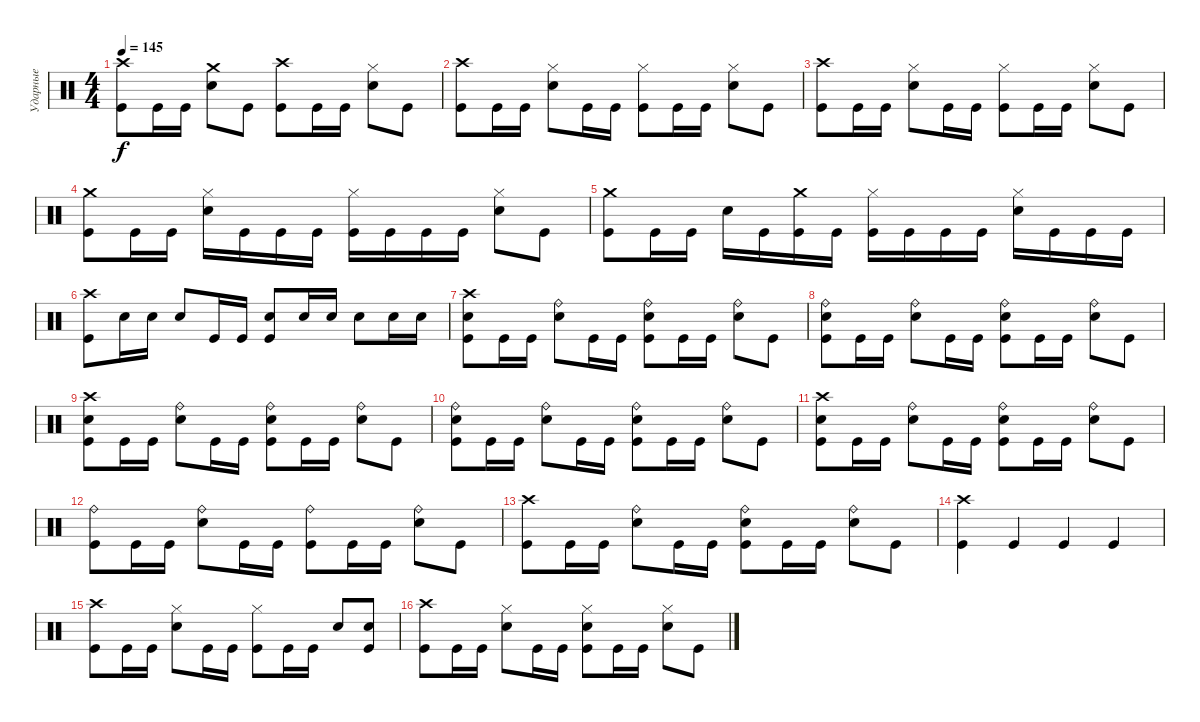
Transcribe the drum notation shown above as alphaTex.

\track ("Ударные" "Ударные") {instrument percussion}
\staff {score}
\articulation defaults
\ts (4 4)
\tempo 145
\clef neutral
\ks c
("Crash high (hit)" "Kick (hit)").8{dy f} "Kick (hit)".16 "Kick (hit)".16 ("Crash medium (hit)" "Electric Snare (hit)").8 "Kick (hit)".8 ("Crash high (hit)" "Kick (hit)").8 "Kick (hit)".16 "Kick (hit)".16 ("Hi-Hat (closed)" "Electric Snare (hit)").8 "Kick (hit)".8 |
("Crash high (hit)" "Kick (hit)").8 "Kick (hit)".16 "Kick (hit)".16 ("Hi-Hat (closed)" "Electric Snare (hit)").8 "Kick (hit)".16 "Kick (hit)".16 ("Hi-Hat (closed)" "Kick (hit)").8 "Kick (hit)".16 "Kick (hit)".16 ("Hi-Hat (closed)" "Electric Snare (hit)").8 "Kick (hit)".8 |
("Crash high (hit)" "Kick (hit)").8 "Kick (hit)".16 "Kick (hit)".16 ("Hi-Hat (closed)" "Electric Snare (hit)").8 "Kick (hit)".16 "Kick (hit)".16 ("Hi-Hat (closed)" "Kick (hit)").8 "Kick (hit)".16 "Kick (hit)".16 ("Hi-Hat (closed)" "Electric Snare (hit)").8 "Kick (hit)".8 |
("Crash medium (hit)" "Kick (hit)").8 "Kick (hit)".16 "Kick (hit)".16 ("Hi-Hat (closed)" "Electric Snare (hit)").16 "Kick (hit)".16 "Kick (hit)".16 "Kick (hit)".16 ("Hi-Hat (closed)" "Kick (hit)").16 "Kick (hit)".16 "Kick (hit)".16 "Kick (hit)".16 ("Hi-Hat (closed)" "Electric Snare (hit)").8 "Kick (hit)".8 |
("Crash medium (hit)" "Kick (hit)").8 "Kick (hit)".16 "Kick (hit)".16 "Electric Snare (hit)".16 "Kick (hit)".16 ("Crash medium (hit)" "Kick (hit)").16 "Kick (hit)".16 ("Hi-Hat (closed)" "Kick (hit)").16 "Kick (hit)".16 "Kick (hit)".16 "Kick (hit)".16 ("Hi-Hat (closed)" "Electric Snare (hit)").16 "Kick (hit)".16 "Kick (hit)".16 "Kick (hit)".16 |
("Crash high (hit)" "Kick (hit)").8 "Electric Snare (hit)".16 "Electric Snare (hit)".16 "Electric Snare (hit)".8 "Kick (hit)".16 "Kick (hit)".16 ("Electric Snare (hit)" "Kick (hit)").8 "Electric Snare (hit)".16 "Electric Snare (hit)".16 "Electric Snare (hit)".8 "Electric Snare (hit)".16 "Electric Snare (hit)".16 |
("Crash high (hit)" "Electric Snare (hit)" "Kick (hit)").8 "Kick (hit)".16 "Kick (hit)".16 ("Ride (bell)" "Electric Snare (hit)").8 "Kick (hit)".16 "Kick (hit)".16 ("Ride (bell)" "Electric Snare (hit)" "Kick (hit)").8 "Kick (hit)".16 "Kick (hit)".16 ("Ride (bell)" "Electric Snare (hit)").8 "Kick (hit)".8 |
("Ride (bell)" "Electric Snare (hit)" "Kick (hit)").8 "Kick (hit)".16 "Kick (hit)".16 ("Ride (bell)" "Electric Snare (hit)").8 "Kick (hit)".16 "Kick (hit)".16 ("Ride (bell)" "Electric Snare (hit)" "Kick (hit)").8 "Kick (hit)".16 "Kick (hit)".16 ("Ride (bell)" "Electric Snare (hit)").8 "Kick (hit)".8 |
("Crash high (hit)" "Electric Snare (hit)" "Kick (hit)").8 "Kick (hit)".16 "Kick (hit)".16 ("Ride (bell)" "Electric Snare (hit)").8 "Kick (hit)".16 "Kick (hit)".16 ("Ride (bell)" "Electric Snare (hit)" "Kick (hit)").8 "Kick (hit)".16 "Kick (hit)".16 ("Ride (bell)" "Electric Snare (hit)").8 "Kick (hit)".8 |
("Ride (bell)" "Electric Snare (hit)" "Kick (hit)").8 "Kick (hit)".16 "Kick (hit)".16 ("Ride (bell)" "Electric Snare (hit)").8 "Kick (hit)".16 "Kick (hit)".16 ("Ride (bell)" "Electric Snare (hit)" "Kick (hit)").8 "Kick (hit)".16 "Kick (hit)".16 ("Ride (bell)" "Electric Snare (hit)").8 "Kick (hit)".8 |
("Crash high (hit)" "Electric Snare (hit)" "Kick (hit)").8 "Kick (hit)".16 "Kick (hit)".16 ("Ride (bell)" "Electric Snare (hit)").8 "Kick (hit)".16 "Kick (hit)".16 ("Ride (bell)" "Electric Snare (hit)" "Kick (hit)").8 "Kick (hit)".16 "Kick (hit)".16 ("Ride (bell)" "Electric Snare (hit)").8 "Kick (hit)".8 |
("Ride (bell)" "Kick (hit)").8 "Kick (hit)".16 "Kick (hit)".16 ("Ride (bell)" "Electric Snare (hit)").8 "Kick (hit)".16 "Kick (hit)".16 ("Ride (bell)" "Kick (hit)").8 "Kick (hit)".16 "Kick (hit)".16 ("Ride (bell)" "Electric Snare (hit)").8 "Kick (hit)".8 |
("Crash high (hit)" "Kick (hit)").8 "Kick (hit)".16 "Kick (hit)".16 ("Ride (bell)" "Electric Snare (hit)").8 "Kick (hit)".16 "Kick (hit)".16 ("Ride (bell)" "Electric Snare (hit)" "Kick (hit)").8 "Kick (hit)".16 "Kick (hit)".16 ("Ride (bell)" "Electric Snare (hit)").8 "Kick (hit)".8 |
("Crash high (hit)" "Kick (hit)").4 "Kick (hit)".4 "Kick (hit)".4 "Kick (hit)".4 |
("Crash high (hit)" "Kick (hit)").8 "Kick (hit)".16 "Kick (hit)".16 ("Hi-Hat (closed)" "Electric Snare (hit)").8 "Kick (hit)".16 "Kick (hit)".16 ("Hi-Hat (closed)" "Kick (hit)").8 "Kick (hit)".16 "Kick (hit)".16 "Electric Snare (hit)".8 ("Electric Snare (hit)" "Kick (hit)").8 |
("Crash high (hit)" "Kick (hit)").8 "Kick (hit)".16 "Kick (hit)".16 ("Hi-Hat (closed)" "Electric Snare (hit)").8 "Kick (hit)".16 "Kick (hit)".16 ("Hi-Hat (closed)" "Electric Snare (hit)" "Kick (hit)").8 "Kick (hit)".16 "Kick (hit)".16 ("Hi-Hat (closed)" "Electric Snare (hit)").8 "Kick (hit)".8
